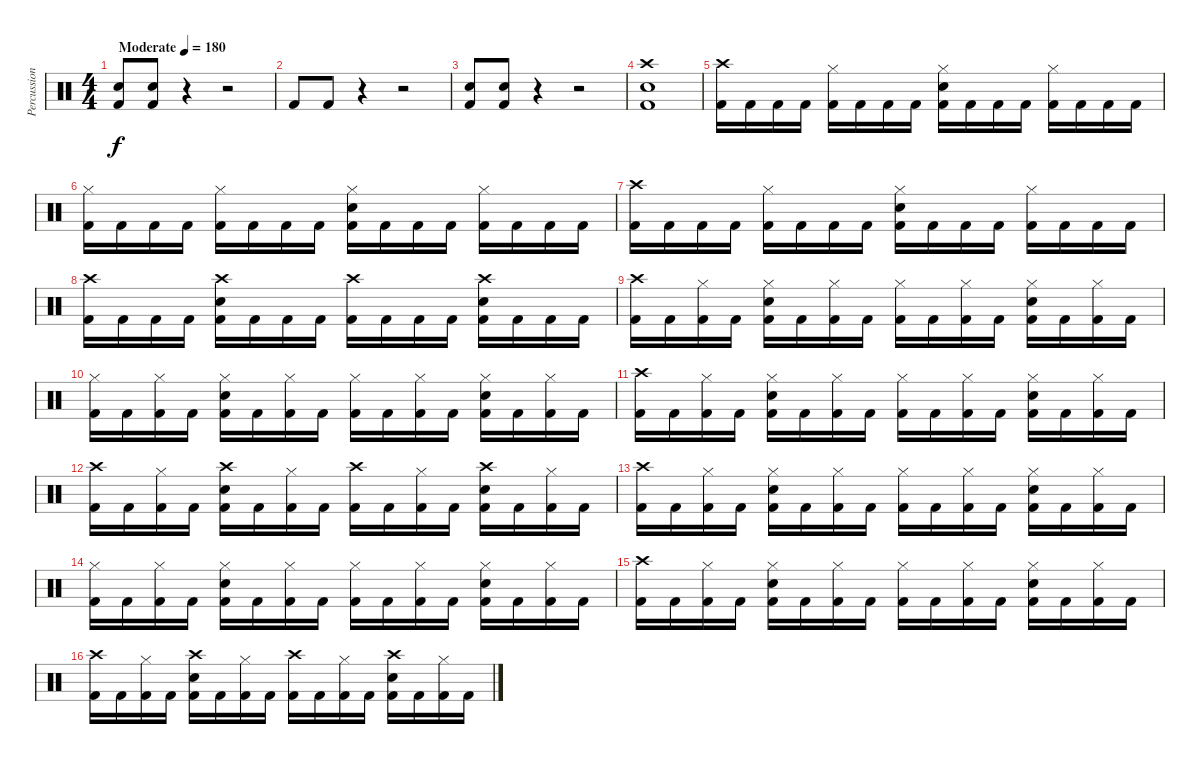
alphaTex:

\track ("Percussion" "Percussion") {instrument percussion}
\staff {score}
\articulation defaults
\ts (4 4)
\tempo (180 "Moderate")
\clef neutral
\ks c
("Snare (hit) 2" "Kick (hit) 2").8{dy f} ("Snare (hit) 2" "Kick (hit) 2").8 r.4 r.2 |
"Kick (hit) 2".8 "Kick (hit) 2".8 r.4 r.2 |
("Snare (hit) 2" "Kick (hit) 2").8 ("Snare (hit) 2" "Kick (hit) 2").8 r.4 r.2 |
("Crash high (hit)" "Snare (hit) 2" "Kick (hit) 2").1 |
("Crash high (hit)" "Kick (hit) 2").16 "Kick (hit) 2".16 "Kick (hit) 2".16 "Kick (hit) 2".16 ("Hi-Hat (closed)" "Kick (hit) 2").16 "Kick (hit) 2".16 "Kick (hit) 2".16 "Kick (hit) 2".16 ("Hi-Hat (closed)" "Snare (hit) 2" "Kick (hit) 2").16 "Kick (hit) 2".16 "Kick (hit) 2".16 "Kick (hit) 2".16 ("Hi-Hat (closed)" "Kick (hit) 2").16 "Kick (hit) 2".16 "Kick (hit) 2".16 "Kick (hit) 2".16 |
("Hi-Hat (closed)" "Kick (hit) 2").16 "Kick (hit) 2".16 "Kick (hit) 2".16 "Kick (hit) 2".16 ("Hi-Hat (closed)" "Kick (hit) 2").16 "Kick (hit) 2".16 "Kick (hit) 2".16 "Kick (hit) 2".16 ("Hi-Hat (closed)" "Snare (hit) 2" "Kick (hit) 2").16 "Kick (hit) 2".16 "Kick (hit) 2".16 "Kick (hit) 2".16 ("Hi-Hat (closed)" "Kick (hit) 2").16 "Kick (hit) 2".16 "Kick (hit) 2".16 "Kick (hit) 2".16 |
("Crash high (hit)" "Kick (hit) 2").16 "Kick (hit) 2".16 "Kick (hit) 2".16 "Kick (hit) 2".16 ("Hi-Hat (closed)" "Kick (hit) 2").16 "Kick (hit) 2".16 "Kick (hit) 2".16 "Kick (hit) 2".16 ("Hi-Hat (closed)" "Snare (hit) 2" "Kick (hit) 2").16 "Kick (hit) 2".16 "Kick (hit) 2".16 "Kick (hit) 2".16 ("Hi-Hat (closed)" "Kick (hit) 2").16 "Kick (hit) 2".16 "Kick (hit) 2".16 "Kick (hit) 2".16 |
("Crash high (hit)" "Kick (hit) 2").16 "Kick (hit) 2".16 "Kick (hit) 2".16 "Kick (hit) 2".16 ("Crash high (hit)" "Snare (hit) 2" "Kick (hit) 2").16 "Kick (hit) 2".16 "Kick (hit) 2".16 "Kick (hit) 2".16 ("Crash high (hit)" "Kick (hit) 2").16 "Kick (hit) 2".16 "Kick (hit) 2".16 "Kick (hit) 2".16 ("Crash high (hit)" "Snare (hit) 2" "Kick (hit) 2").16 "Kick (hit) 2".16 "Kick (hit) 2".16 "Kick (hit) 2".16 |
("Crash high (hit)" "Kick (hit) 2").16 "Kick (hit) 2".16 ("Hi-Hat (closed)" "Kick (hit) 2").16 "Kick (hit) 2".16 ("Hi-Hat (closed)" "Snare (hit) 2" "Kick (hit) 2").16 "Kick (hit) 2".16 ("Hi-Hat (closed)" "Kick (hit) 2").16 "Kick (hit) 2".16 ("Hi-Hat (closed)" "Kick (hit) 2").16 "Kick (hit) 2".16 ("Hi-Hat (closed)" "Kick (hit) 2").16 "Kick (hit) 2".16 ("Hi-Hat (closed)" "Snare (hit) 2" "Kick (hit) 2").16 "Kick (hit) 2".16 ("Hi-Hat (closed)" "Kick (hit) 2").16 "Kick (hit) 2".16 |
("Hi-Hat (closed)" "Kick (hit) 2").16 "Kick (hit) 2".16 ("Hi-Hat (closed)" "Kick (hit) 2").16 "Kick (hit) 2".16 ("Hi-Hat (closed)" "Snare (hit) 2" "Kick (hit) 2").16 "Kick (hit) 2".16 ("Hi-Hat (closed)" "Kick (hit) 2").16 "Kick (hit) 2".16 ("Hi-Hat (closed)" "Kick (hit) 2").16 "Kick (hit) 2".16 ("Hi-Hat (closed)" "Kick (hit) 2").16 "Kick (hit) 2".16 ("Hi-Hat (closed)" "Snare (hit) 2" "Kick (hit) 2").16 "Kick (hit) 2".16 ("Hi-Hat (closed)" "Kick (hit) 2").16 "Kick (hit) 2".16 |
("Crash high (hit)" "Kick (hit) 2").16 "Kick (hit) 2".16 ("Hi-Hat (closed)" "Kick (hit) 2").16 "Kick (hit) 2".16 ("Hi-Hat (closed)" "Snare (hit) 2" "Kick (hit) 2").16 "Kick (hit) 2".16 ("Hi-Hat (closed)" "Kick (hit) 2").16 "Kick (hit) 2".16 ("Hi-Hat (closed)" "Kick (hit) 2").16 "Kick (hit) 2".16 ("Hi-Hat (closed)" "Kick (hit) 2").16 "Kick (hit) 2".16 ("Hi-Hat (closed)" "Snare (hit) 2" "Kick (hit) 2").16 "Kick (hit) 2".16 ("Hi-Hat (closed)" "Kick (hit) 2").16 "Kick (hit) 2".16 |
("Crash high (hit)" "Kick (hit) 2").16 "Kick (hit) 2".16 ("Hi-Hat (closed)" "Kick (hit) 2").16 "Kick (hit) 2".16 ("Crash high (hit)" "Snare (hit) 2" "Kick (hit) 2").16 "Kick (hit) 2".16 ("Hi-Hat (closed)" "Kick (hit) 2").16 "Kick (hit) 2".16 ("Crash high (hit)" "Kick (hit) 2").16 "Kick (hit) 2".16 ("Hi-Hat (closed)" "Kick (hit) 2").16 "Kick (hit) 2".16 ("Crash high (hit)" "Snare (hit) 2" "Kick (hit) 2").16 "Kick (hit) 2".16 ("Hi-Hat (closed)" "Kick (hit) 2").16 "Kick (hit) 2".16 |
("Crash high (hit)" "Kick (hit) 2").16 "Kick (hit) 2".16 ("Hi-Hat (closed)" "Kick (hit) 2").16 "Kick (hit) 2".16 ("Hi-Hat (closed)" "Snare (hit) 2" "Kick (hit) 2").16 "Kick (hit) 2".16 ("Hi-Hat (closed)" "Kick (hit) 2").16 "Kick (hit) 2".16 ("Hi-Hat (closed)" "Kick (hit) 2").16 "Kick (hit) 2".16 ("Hi-Hat (closed)" "Kick (hit) 2").16 "Kick (hit) 2".16 ("Hi-Hat (closed)" "Snare (hit) 2" "Kick (hit) 2").16 "Kick (hit) 2".16 ("Hi-Hat (closed)" "Kick (hit) 2").16 "Kick (hit) 2".16 |
("Hi-Hat (closed)" "Kick (hit) 2").16 "Kick (hit) 2".16 ("Hi-Hat (closed)" "Kick (hit) 2").16 "Kick (hit) 2".16 ("Hi-Hat (closed)" "Snare (hit) 2" "Kick (hit) 2").16 "Kick (hit) 2".16 ("Hi-Hat (closed)" "Kick (hit) 2").16 "Kick (hit) 2".16 ("Hi-Hat (closed)" "Kick (hit) 2").16 "Kick (hit) 2".16 ("Hi-Hat (closed)" "Kick (hit) 2").16 "Kick (hit) 2".16 ("Hi-Hat (closed)" "Snare (hit) 2" "Kick (hit) 2").16 "Kick (hit) 2".16 ("Hi-Hat (closed)" "Kick (hit) 2").16 "Kick (hit) 2".16 |
("Crash high (hit)" "Kick (hit) 2").16 "Kick (hit) 2".16 ("Hi-Hat (closed)" "Kick (hit) 2").16 "Kick (hit) 2".16 ("Hi-Hat (closed)" "Snare (hit) 2" "Kick (hit) 2").16 "Kick (hit) 2".16 ("Hi-Hat (closed)" "Kick (hit) 2").16 "Kick (hit) 2".16 ("Hi-Hat (closed)" "Kick (hit) 2").16 "Kick (hit) 2".16 ("Hi-Hat (closed)" "Kick (hit) 2").16 "Kick (hit) 2".16 ("Hi-Hat (closed)" "Snare (hit) 2" "Kick (hit) 2").16 "Kick (hit) 2".16 ("Hi-Hat (closed)" "Kick (hit) 2").16 "Kick (hit) 2".16 |
("Crash high (hit)" "Kick (hit) 2").16 "Kick (hit) 2".16 ("Hi-Hat (closed)" "Kick (hit) 2").16 "Kick (hit) 2".16 ("Crash high (hit)" "Snare (hit) 2" "Kick (hit) 2").16 "Kick (hit) 2".16 ("Hi-Hat (closed)" "Kick (hit) 2").16 "Kick (hit) 2".16 ("Crash high (hit)" "Kick (hit) 2").16 "Kick (hit) 2".16 ("Hi-Hat (closed)" "Kick (hit) 2").16 "Kick (hit) 2".16 ("Crash high (hit)" "Snare (hit) 2" "Kick (hit) 2").16 "Kick (hit) 2".16 ("Hi-Hat (closed)" "Kick (hit) 2").16 "Kick (hit) 2".16
